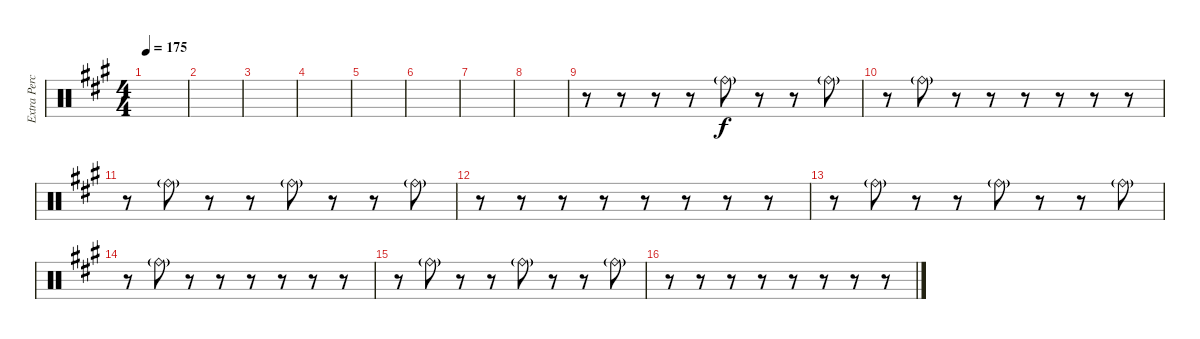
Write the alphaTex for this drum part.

\track ("Extra Percussion" "Extra Perc") {instrument percussion}
\staff {score}
\articulation defaults
\ts (4 4)
\tempo 175
\clef neutral
\ks f#minor
|
|
|
|
|
|
|
|
r.8 r.8 r.8 r.8 "Ride (bell)"{g}.8 r.8 r.8 "Ride (bell)"{g}.8 |
r.8 "Ride (bell)"{g}.8 r.8 r.8 r.8 r.8 r.8 r.8 |
r.8 "Ride (bell)"{g}.8 r.8 r.8 "Ride (bell)"{g}.8 r.8 r.8 "Ride (bell)"{g}.8 |
r.8 r.8 r.8 r.8 r.8 r.8 r.8 r.8 |
r.8 "Ride (bell)"{g}.8 r.8 r.8 "Ride (bell)"{g}.8 r.8 r.8 "Ride (bell)"{g}.8 |
r.8 "Ride (bell)"{g}.8 r.8 r.8 r.8 r.8 r.8 r.8 |
r.8 "Ride (bell)"{g}.8 r.8 r.8 "Ride (bell)"{g}.8 r.8 r.8 "Ride (bell)"{g}.8 |
r.8 r.8 r.8 r.8 r.8 r.8 r.8 r.8
